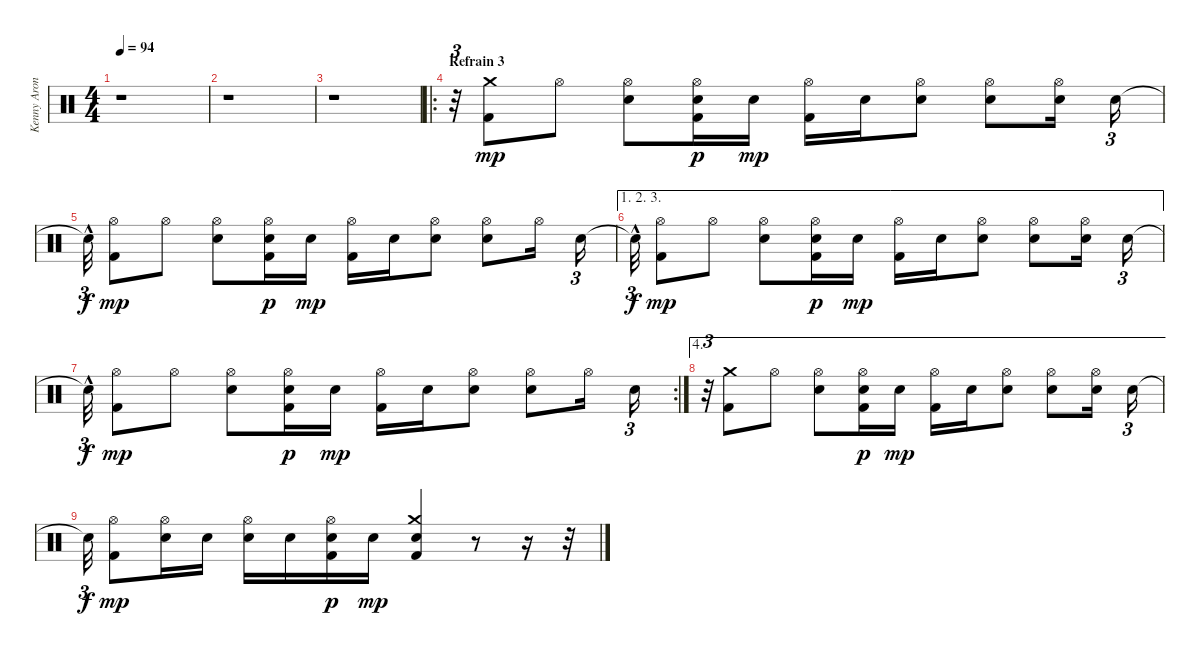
\track ("Kenny Aronoff - Batterie" "Kenny Aron") {instrument percussion}
\staff {score}
\articulation defaults
\ts (4 4)
\tempo 94
\clef neutral
\ks c
r.1{dy mf} |
r.1 |
r.1 |
\ro
\section ("" "Refrain 3")
r.32{tu (3 2)} ("Kick (hit) 2" "Crash medium (hit)").8{dy mp} "Hi-Hat (open)".8 ("Hi-Hat (open)" "Electric Snare (hit)").8 ("Kick (hit) 2" "Hi-Hat (open)" "Electric Snare (hit)").16{dy p} "Electric Snare (hit)".16{dy mp} ("Kick (hit) 2" "Hi-Hat (open)").16 "Electric Snare (hit)".16 ("Hi-Hat (open)" "Electric Snare (hit)").8 ("Electric Snare (hit)" "Hi-Hat (open)").8 ("Hi-Hat (open)" "Electric Snare (hit)").16 "Electric Snare (hit)".16{tu (3 2)} |
"Snare (hit)"{hac t}.32{tu (3 2) dy f} ("Kick (hit) 2" "Hi-Hat (open)").8{dy mp} "Hi-Hat (open)".8 ("Hi-Hat (open)" "Electric Snare (hit)").8 ("Kick (hit) 2" "Hi-Hat (open)" "Electric Snare (hit)").16{dy p} "Electric Snare (hit)".16{dy mp} ("Kick (hit) 2" "Hi-Hat (open)").16 "Electric Snare (hit)".16 ("Hi-Hat (open)" "Electric Snare (hit)").8 ("Electric Snare (hit)" "Hi-Hat (open)").8 "Hi-Hat (open)".16 "Electric Snare (hit)".16{tu (3 2)} |
\ae (1 2 3)
"Snare (hit)"{hac t}.32{tu (3 2) dy f} ("Kick (hit) 2" "Hi-Hat (open)").8{dy mp} "Hi-Hat (open)".8 ("Hi-Hat (open)" "Electric Snare (hit)").8 ("Kick (hit) 2" "Hi-Hat (open)" "Electric Snare (hit)").16{dy p} "Electric Snare (hit)".16{dy mp} ("Kick (hit) 2" "Hi-Hat (open)").16 "Electric Snare (hit)".16 ("Hi-Hat (open)" "Electric Snare (hit)").8 ("Electric Snare (hit)" "Hi-Hat (open)").8 ("Hi-Hat (open)" "Electric Snare (hit)").16 "Electric Snare (hit)".16{tu (3 2)} |
\rc 2 "Snare (hit)"{hac t}.32{tu (3 2) dy f}
("Kick (hit) 2" "Hi-Hat (open)").8{dy mp} "Hi-Hat (open)".8 ("Hi-Hat (open)" "Electric Snare (hit)").8 ("Kick (hit) 2" "Hi-Hat (open)" "Electric Snare (hit)").16{dy p} "Electric Snare (hit)".16{dy mp} ("Kick (hit) 2" "Hi-Hat (open)").16 "Electric Snare (hit)".16 ("Hi-Hat (open)" "Electric Snare (hit)").8 ("Electric Snare (hit)" "Hi-Hat (open)").8 "Hi-Hat (open)".16 "Electric Snare (hit)".16{tu (3 2)} |
\ae 4
r.32{tu (3 2)} ("Kick (hit) 2" "Crash medium (hit)").8 "Hi-Hat (open)".8 ("Hi-Hat (open)" "Electric Snare (hit)").8 ("Kick (hit) 2" "Hi-Hat (open)" "Electric Snare (hit)").16{dy p} "Electric Snare (hit)".16{dy mp} ("Kick (hit) 2" "Hi-Hat (open)").16 "Electric Snare (hit)".16 ("Hi-Hat (open)" "Electric Snare (hit)").8 ("Electric Snare (hit)" "Hi-Hat (open)").8 ("Hi-Hat (open)" "Electric Snare (hit)").16 "Electric Snare (hit)".16{tu (3 2)} |
"Snare (hit)"{t}.32{tu (3 2) dy f} ("Kick (hit) 2" "Hi-Hat (open)").8{dy mp} ("Hi-Hat (open)" "Electric Snare (hit)").16 "Electric Snare (hit)".16 ("Hi-Hat (open)" "Electric Snare (hit)").16 "Electric Snare (hit)".16 ("Kick (hit) 2" "Hi-Hat (open)" "Electric Snare (hit)").16{dy p} "Electric Snare (hit)".16{dy mp} ("Kick (hit) 2" "Crash medium (hit)" "Electric Snare (hit)").4 r.8 r.16 r.32
